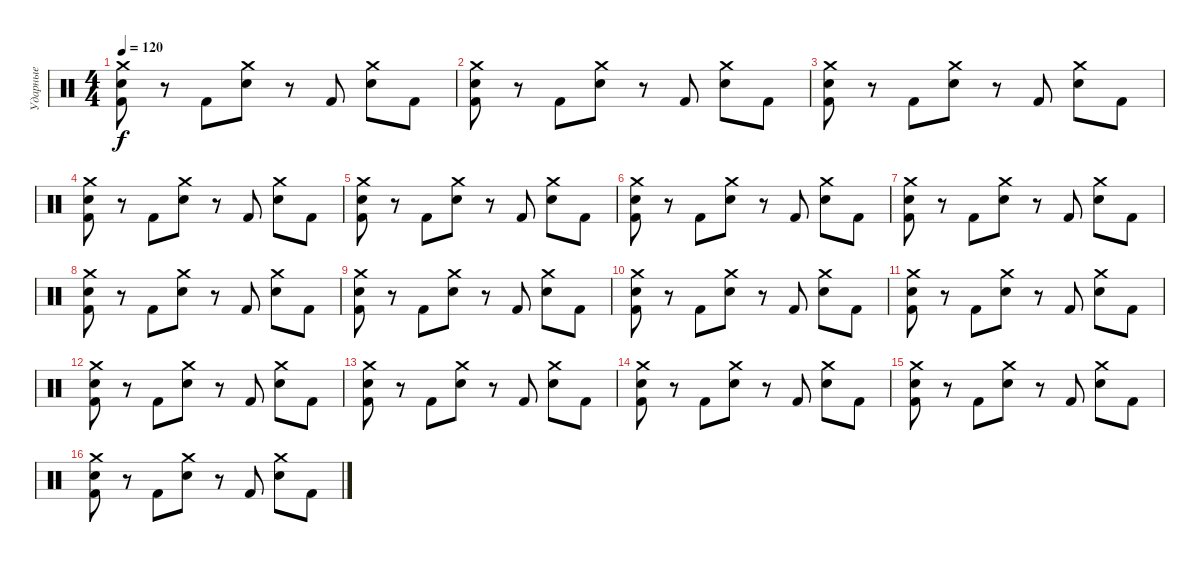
\track ("Ударные" "Ударные") {instrument percussion}
\staff {score}
\articulation defaults
\ts (4 4)
\tempo 120
\clef neutral
\ks c
("Crash medium (hit)" "Snare (hit) 2" "Kick (hit) 2").8{dy f} r.8 "Kick (hit) 2".8 ("Crash medium (hit)" "Snare (hit) 2").8 r.8 "Kick (hit) 2".8 ("Crash medium (hit)" "Snare (hit) 2").8 "Kick (hit) 2".8 |
("Crash medium (hit)" "Snare (hit) 2" "Kick (hit) 2").8 r.8 "Kick (hit) 2".8 ("Crash medium (hit)" "Snare (hit) 2").8 r.8 "Kick (hit) 2".8 ("Crash medium (hit)" "Snare (hit) 2").8 "Kick (hit) 2".8 |
("Crash medium (hit)" "Snare (hit) 2" "Kick (hit) 2").8 r.8 "Kick (hit) 2".8 ("Crash medium (hit)" "Snare (hit) 2").8 r.8 "Kick (hit) 2".8 ("Crash medium (hit)" "Snare (hit) 2").8 "Kick (hit) 2".8 |
("Crash medium (hit)" "Snare (hit) 2" "Kick (hit) 2").8 r.8 "Kick (hit) 2".8 ("Crash medium (hit)" "Snare (hit) 2").8 r.8 "Kick (hit) 2".8 ("Crash medium (hit)" "Snare (hit) 2").8 "Kick (hit) 2".8 |
("Crash medium (hit)" "Snare (hit) 2" "Kick (hit) 2").8 r.8 "Kick (hit) 2".8 ("Crash medium (hit)" "Snare (hit) 2").8 r.8 "Kick (hit) 2".8 ("Crash medium (hit)" "Snare (hit) 2").8 "Kick (hit) 2".8 |
("Crash medium (hit)" "Snare (hit) 2" "Kick (hit) 2").8 r.8 "Kick (hit) 2".8 ("Crash medium (hit)" "Snare (hit) 2").8 r.8 "Kick (hit) 2".8 ("Crash medium (hit)" "Snare (hit) 2").8 "Kick (hit) 2".8 |
("Crash medium (hit)" "Snare (hit) 2" "Kick (hit) 2").8 r.8 "Kick (hit) 2".8 ("Crash medium (hit)" "Snare (hit) 2").8 r.8 "Kick (hit) 2".8 ("Crash medium (hit)" "Snare (hit) 2").8 "Kick (hit) 2".8 |
("Crash medium (hit)" "Snare (hit) 2" "Kick (hit) 2").8 r.8 "Kick (hit) 2".8 ("Crash medium (hit)" "Snare (hit) 2").8 r.8 "Kick (hit) 2".8 ("Crash medium (hit)" "Snare (hit) 2").8 "Kick (hit) 2".8 |
("Crash medium (hit)" "Snare (hit) 2" "Kick (hit) 2").8 r.8 "Kick (hit) 2".8 ("Crash medium (hit)" "Snare (hit) 2").8 r.8 "Kick (hit) 2".8 ("Crash medium (hit)" "Snare (hit) 2").8 "Kick (hit) 2".8 |
("Crash medium (hit)" "Snare (hit) 2" "Kick (hit) 2").8 r.8 "Kick (hit) 2".8 ("Crash medium (hit)" "Snare (hit) 2").8 r.8 "Kick (hit) 2".8 ("Crash medium (hit)" "Snare (hit) 2").8 "Kick (hit) 2".8 |
("Crash medium (hit)" "Snare (hit) 2" "Kick (hit) 2").8 r.8 "Kick (hit) 2".8 ("Crash medium (hit)" "Snare (hit) 2").8 r.8 "Kick (hit) 2".8 ("Crash medium (hit)" "Snare (hit) 2").8 "Kick (hit) 2".8 |
("Crash medium (hit)" "Snare (hit) 2" "Kick (hit) 2").8 r.8 "Kick (hit) 2".8 ("Crash medium (hit)" "Snare (hit) 2").8 r.8 "Kick (hit) 2".8 ("Crash medium (hit)" "Snare (hit) 2").8 "Kick (hit) 2".8 |
("Crash medium (hit)" "Snare (hit) 2" "Kick (hit) 2").8 r.8 "Kick (hit) 2".8 ("Crash medium (hit)" "Snare (hit) 2").8 r.8 "Kick (hit) 2".8 ("Crash medium (hit)" "Snare (hit) 2").8 "Kick (hit) 2".8 |
("Crash medium (hit)" "Snare (hit) 2" "Kick (hit) 2").8 r.8 "Kick (hit) 2".8 ("Crash medium (hit)" "Snare (hit) 2").8 r.8 "Kick (hit) 2".8 ("Crash medium (hit)" "Snare (hit) 2").8 "Kick (hit) 2".8 |
("Crash medium (hit)" "Snare (hit) 2" "Kick (hit) 2").8 r.8 "Kick (hit) 2".8 ("Crash medium (hit)" "Snare (hit) 2").8 r.8 "Kick (hit) 2".8 ("Crash medium (hit)" "Snare (hit) 2").8 "Kick (hit) 2".8 |
("Crash medium (hit)" "Snare (hit) 2" "Kick (hit) 2").8 r.8 "Kick (hit) 2".8 ("Crash medium (hit)" "Snare (hit) 2").8 r.8 "Kick (hit) 2".8 ("Crash medium (hit)" "Snare (hit) 2").8 "Kick (hit) 2".8
